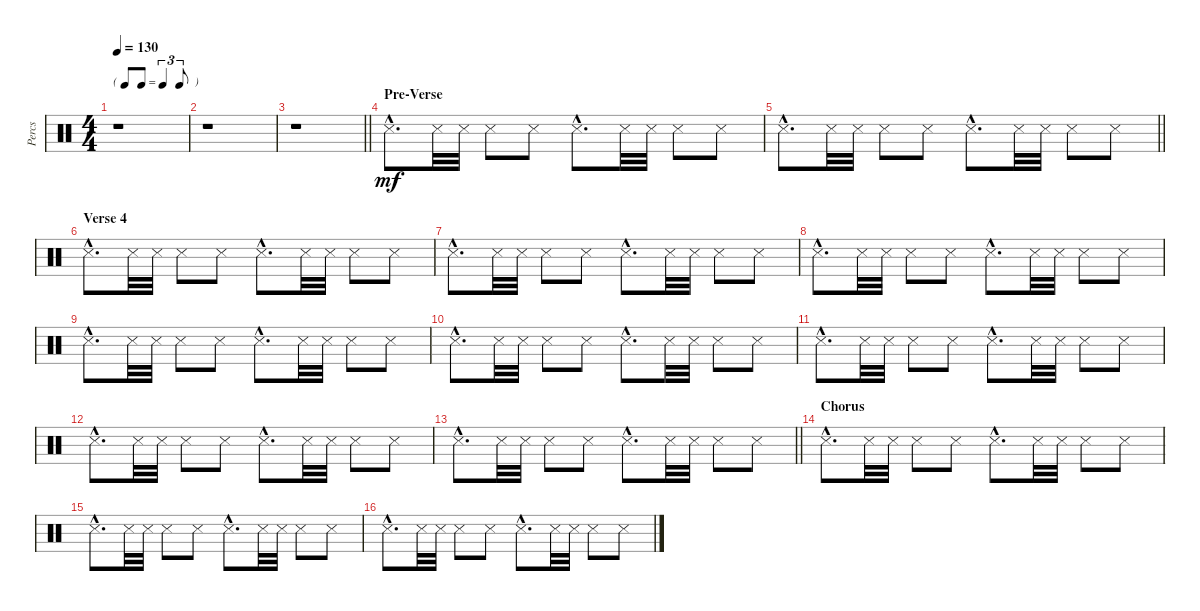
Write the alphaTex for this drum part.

\track ("Percs" "Percs") {instrument percussion}
\staff {score}
\articulation defaults
\ts (4 4)
\tf triplet8th
\tempo 130
\clef neutral
\ks c
r.1{dy mf} |
r.1 |
\barLineRight lightlight
r.1 |
\section ("" "Pre-Verse")
"Snare (side stick) 3"{hac}.8{d} "Snare (side stick) 3".32 "Snare (side stick) 3".32 "Snare (side stick) 3".8 "Snare (side stick) 3".8 "Snare (side stick) 3"{hac}.8{d} "Snare (side stick) 3".32 "Snare (side stick) 3".32 "Snare (side stick) 3".8 "Snare (side stick) 3".8 |
\barLineRight lightlight "Snare (side stick) 3"{hac}.8{d} "Snare (side stick) 3".32 "Snare (side stick) 3".32 "Snare (side stick) 3".8 "Snare (side stick) 3".8 "Snare (side stick) 3"{hac}.8{d} "Snare (side stick) 3".32 "Snare (side stick) 3".32 "Snare (side stick) 3".8 "Snare (side stick) 3".8
|
\section ("" "Verse 4")
"Snare (side stick) 3"{hac}.8{d} "Snare (side stick) 3".32 "Snare (side stick) 3".32 "Snare (side stick) 3".8 "Snare (side stick) 3".8 "Snare (side stick) 3"{hac}.8{d} "Snare (side stick) 3".32 "Snare (side stick) 3".32 "Snare (side stick) 3".8 "Snare (side stick) 3".8 |
"Snare (side stick) 3"{hac}.8{d} "Snare (side stick) 3".32 "Snare (side stick) 3".32 "Snare (side stick) 3".8 "Snare (side stick) 3".8 "Snare (side stick) 3"{hac}.8{d} "Snare (side stick) 3".32 "Snare (side stick) 3".32 "Snare (side stick) 3".8 "Snare (side stick) 3".8 |
"Snare (side stick) 3"{hac}.8{d} "Snare (side stick) 3".32 "Snare (side stick) 3".32 "Snare (side stick) 3".8 "Snare (side stick) 3".8 "Snare (side stick) 3"{hac}.8{d} "Snare (side stick) 3".32 "Snare (side stick) 3".32 "Snare (side stick) 3".8 "Snare (side stick) 3".8 |
"Snare (side stick) 3"{hac}.8{d} "Snare (side stick) 3".32 "Snare (side stick) 3".32 "Snare (side stick) 3".8 "Snare (side stick) 3".8 "Snare (side stick) 3"{hac}.8{d} "Snare (side stick) 3".32 "Snare (side stick) 3".32 "Snare (side stick) 3".8 "Snare (side stick) 3".8 |
"Snare (side stick) 3"{hac}.8{d} "Snare (side stick) 3".32 "Snare (side stick) 3".32 "Snare (side stick) 3".8 "Snare (side stick) 3".8 "Snare (side stick) 3"{hac}.8{d} "Snare (side stick) 3".32 "Snare (side stick) 3".32 "Snare (side stick) 3".8 "Snare (side stick) 3".8 |
"Snare (side stick) 3"{hac}.8{d} "Snare (side stick) 3".32 "Snare (side stick) 3".32 "Snare (side stick) 3".8 "Snare (side stick) 3".8 "Snare (side stick) 3"{hac}.8{d} "Snare (side stick) 3".32 "Snare (side stick) 3".32 "Snare (side stick) 3".8 "Snare (side stick) 3".8 |
"Snare (side stick) 3"{hac}.8{d} "Snare (side stick) 3".32 "Snare (side stick) 3".32 "Snare (side stick) 3".8 "Snare (side stick) 3".8 "Snare (side stick) 3"{hac}.8{d} "Snare (side stick) 3".32 "Snare (side stick) 3".32 "Snare (side stick) 3".8 "Snare (side stick) 3".8 |
\barLineRight lightlight "Snare (side stick) 3"{hac}.8{d} "Snare (side stick) 3".32 "Snare (side stick) 3".32 "Snare (side stick) 3".8 "Snare (side stick) 3".8 "Snare (side stick) 3"{hac}.8{d} "Snare (side stick) 3".32 "Snare (side stick) 3".32 "Snare (side stick) 3".8 "Snare (side stick) 3".8
|
\section ("" "Chorus")
"Snare (side stick) 3"{hac}.8{d} "Snare (side stick) 3".32 "Snare (side stick) 3".32 "Snare (side stick) 3".8 "Snare (side stick) 3".8 "Snare (side stick) 3"{hac}.8{d} "Snare (side stick) 3".32 "Snare (side stick) 3".32 "Snare (side stick) 3".8 "Snare (side stick) 3".8 |
"Snare (side stick) 3"{hac}.8{d} "Snare (side stick) 3".32 "Snare (side stick) 3".32 "Snare (side stick) 3".8 "Snare (side stick) 3".8 "Snare (side stick) 3"{hac}.8{d} "Snare (side stick) 3".32 "Snare (side stick) 3".32 "Snare (side stick) 3".8 "Snare (side stick) 3".8 |
"Snare (side stick) 3"{hac}.8{d} "Snare (side stick) 3".32 "Snare (side stick) 3".32 "Snare (side stick) 3".8 "Snare (side stick) 3".8 "Snare (side stick) 3"{hac}.8{d} "Snare (side stick) 3".32 "Snare (side stick) 3".32 "Snare (side stick) 3".8 "Snare (side stick) 3".8
